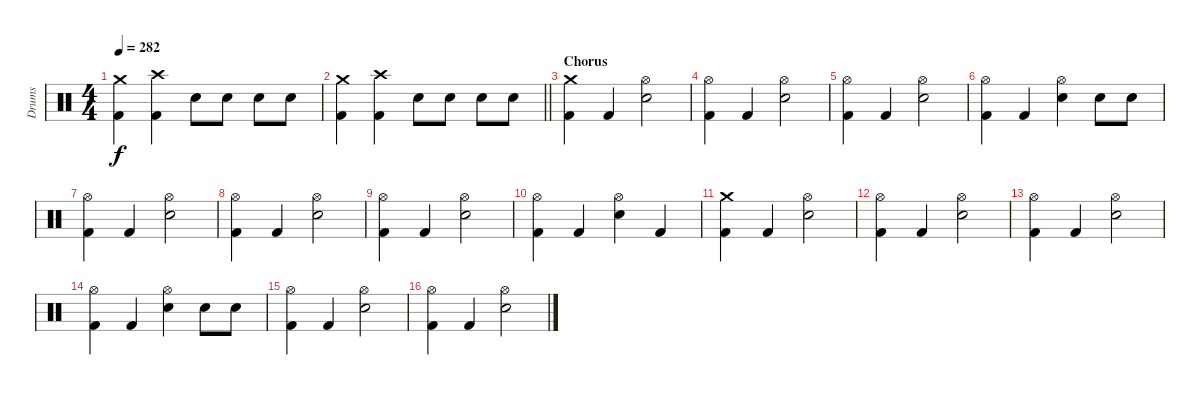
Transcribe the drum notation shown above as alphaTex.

\track ("Drums" "Drums") {instrument percussion}
\staff {score}
\articulation defaults
\ts (4 4)
\tempo 282
\clef neutral
\ks c
("Crash medium (hit)" "Kick (hit) 2").4{dy f} ("Crash high (hit)" "Kick (hit) 2").4 "Electric Snare (hit)".8 "Electric Snare (hit)".8 "Electric Snare (hit)".8 "Electric Snare (hit)".8 |
\barLineRight lightlight
("Crash medium (hit)" "Kick (hit) 2").4 ("Crash high (hit)" "Kick (hit) 2").4 "Electric Snare (hit)".8 "Electric Snare (hit)".8 "Electric Snare (hit)".8 "Electric Snare (hit)".8 |
\section ("" "Chorus")
("Crash medium (hit)" "Kick (hit) 2").4 "Kick (hit) 2".4 ("Hi-Hat (open)" "Electric Snare (hit)").2 |
("Hi-Hat (open)" "Kick (hit) 2").4 "Kick (hit) 2".4 ("Hi-Hat (open)" "Electric Snare (hit)").2 |
("Hi-Hat (open)" "Kick (hit) 2").4 "Kick (hit) 2".4 ("Hi-Hat (open)" "Electric Snare (hit)").2 |
("Hi-Hat (open)" "Kick (hit) 2").4 "Kick (hit) 2".4 ("Hi-Hat (open)" "Electric Snare (hit)").4 "Electric Snare (hit)".8 "Electric Snare (hit)".8 |
("Hi-Hat (open)" "Kick (hit) 2").4 "Kick (hit) 2".4 ("Hi-Hat (open)" "Electric Snare (hit)").2 |
("Hi-Hat (open)" "Kick (hit) 2").4 "Kick (hit) 2".4 ("Hi-Hat (open)" "Electric Snare (hit)").2 |
("Hi-Hat (open)" "Kick (hit) 2").4 "Kick (hit) 2".4 ("Hi-Hat (open)" "Electric Snare (hit)").2 |
("Hi-Hat (open)" "Kick (hit) 2").4 "Kick (hit) 2".4 ("Hi-Hat (open)" "Electric Snare (hit)").4 "Kick (hit) 2".4 |
("Crash medium (hit)" "Kick (hit) 2").4 "Kick (hit) 2".4 ("Hi-Hat (open)" "Electric Snare (hit)").2 |
("Hi-Hat (open)" "Kick (hit) 2").4 "Kick (hit) 2".4 ("Hi-Hat (open)" "Electric Snare (hit)").2 |
("Hi-Hat (open)" "Kick (hit) 2").4 "Kick (hit) 2".4 ("Hi-Hat (open)" "Electric Snare (hit)").2 |
("Hi-Hat (open)" "Kick (hit) 2").4 "Kick (hit) 2".4 ("Hi-Hat (open)" "Electric Snare (hit)").4 "Electric Snare (hit)".8 "Electric Snare (hit)".8 |
("Hi-Hat (open)" "Kick (hit) 2").4 "Kick (hit) 2".4 ("Hi-Hat (open)" "Electric Snare (hit)").2 |
("Hi-Hat (open)" "Kick (hit) 2").4 "Kick (hit) 2".4 ("Hi-Hat (open)" "Electric Snare (hit)").2
